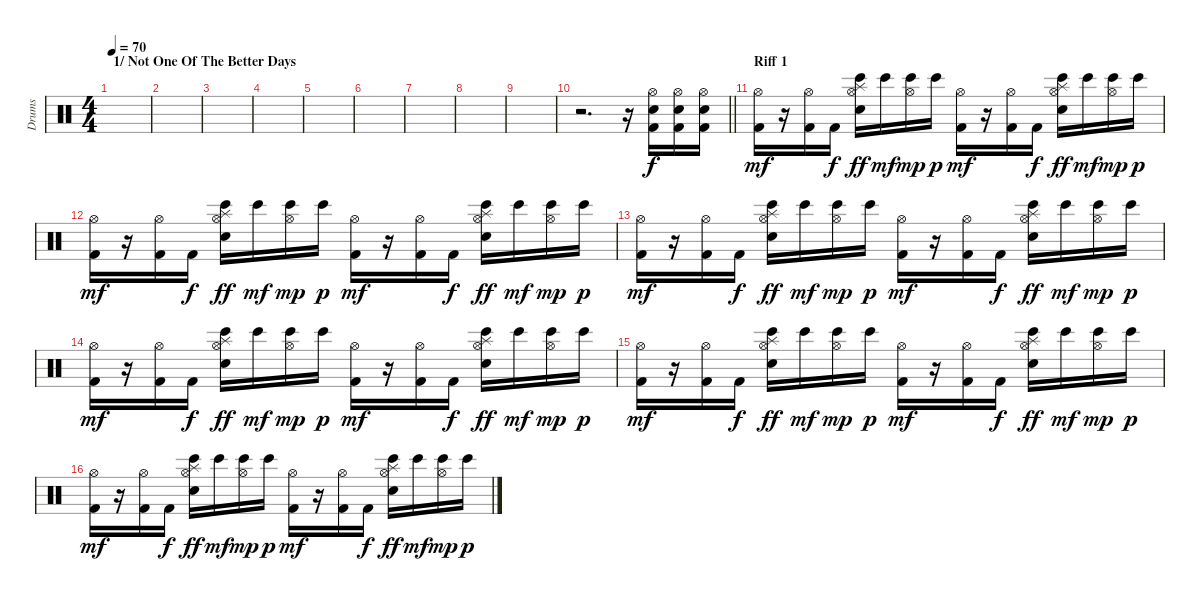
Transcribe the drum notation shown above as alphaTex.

\track ("Drums" "Drums") {instrument percussion}
\staff {score}
\articulation defaults
\ts (4 4)
\section ("" "1/ Not One Of The Better Days")
\tempo 70
\clef neutral
\ks c
|
|
|
|
|
|
|
|
|
\barLineRight lightlight
r.2{d} r.16 ("Hi-Hat (open)" "Snare (hit) 2" "Kick (hit) 2").16 ("Hi-Hat (open)" "Snare (hit) 2" "Kick (hit) 2").16 ("Hi-Hat (open)" "Snare (hit) 2" "Kick (hit) 2").16 |
\section ("" "Riff 1")
("Hi-Hat (open)" "Kick (hit) 2").16{dy mf} r.16 ("Hi-Hat (open)" "Kick (hit) 2").16 "Kick (hit) 2".16{dy f} ("Hi-Hat (open)" "Splash (hit)" "Snare (hit) 2" "Bongo High (hit)").16{dy ff} "Bongo High (hit)".16{dy mf} ("Hi-Hat (open)" "Bongo High (hit)").16{dy mp} "Bongo High (hit)".16{dy p} ("Hi-Hat (open)" "Kick (hit) 2").16{dy mf} r.16 ("Hi-Hat (open)" "Kick (hit) 2").16 "Kick (hit) 2".16{dy f} ("Hi-Hat (open)" "Splash (hit)" "Snare (hit) 2" "Bongo High (hit)").16{dy ff} "Bongo High (hit)".16{dy mf} ("Hi-Hat (open)" "Bongo High (hit)").16{dy mp} "Bongo High (hit)".16{dy p} |
("Hi-Hat (open)" "Kick (hit) 2").16{dy mf} r.16 ("Hi-Hat (open)" "Kick (hit) 2").16 "Kick (hit) 2".16{dy f} ("Hi-Hat (open)" "Splash (hit)" "Snare (hit) 2" "Bongo High (hit)").16{dy ff} "Bongo High (hit)".16{dy mf} ("Hi-Hat (open)" "Bongo High (hit)").16{dy mp} "Bongo High (hit)".16{dy p} ("Hi-Hat (open)" "Kick (hit) 2").16{dy mf} r.16 ("Hi-Hat (open)" "Kick (hit) 2").16 "Kick (hit) 2".16{dy f} ("Hi-Hat (open)" "Splash (hit)" "Snare (hit) 2" "Bongo High (hit)").16{dy ff} "Bongo High (hit)".16{dy mf} ("Hi-Hat (open)" "Bongo High (hit)").16{dy mp} "Bongo High (hit)".16{dy p} |
("Hi-Hat (open)" "Kick (hit) 2").16{dy mf} r.16 ("Hi-Hat (open)" "Kick (hit) 2").16 "Kick (hit) 2".16{dy f} ("Hi-Hat (open)" "Splash (hit)" "Snare (hit) 2" "Bongo High (hit)").16{dy ff} "Bongo High (hit)".16{dy mf} ("Hi-Hat (open)" "Bongo High (hit)").16{dy mp} "Bongo High (hit)".16{dy p} ("Hi-Hat (open)" "Kick (hit) 2").16{dy mf} r.16 ("Hi-Hat (open)" "Kick (hit) 2").16 "Kick (hit) 2".16{dy f} ("Hi-Hat (open)" "Splash (hit)" "Snare (hit) 2" "Bongo High (hit)").16{dy ff} "Bongo High (hit)".16{dy mf} ("Hi-Hat (open)" "Bongo High (hit)").16{dy mp} "Bongo High (hit)".16{dy p} |
("Hi-Hat (open)" "Kick (hit) 2").16{dy mf} r.16 ("Hi-Hat (open)" "Kick (hit) 2").16 "Kick (hit) 2".16{dy f} ("Hi-Hat (open)" "Splash (hit)" "Snare (hit) 2" "Bongo High (hit)").16{dy ff} "Bongo High (hit)".16{dy mf} ("Hi-Hat (open)" "Bongo High (hit)").16{dy mp} "Bongo High (hit)".16{dy p} ("Hi-Hat (open)" "Kick (hit) 2").16{dy mf} r.16 ("Hi-Hat (open)" "Kick (hit) 2").16 "Kick (hit) 2".16{dy f} ("Hi-Hat (open)" "Splash (hit)" "Snare (hit) 2" "Bongo High (hit)").16{dy ff} "Bongo High (hit)".16{dy mf} ("Hi-Hat (open)" "Bongo High (hit)").16{dy mp} "Bongo High (hit)".16{dy p} |
("Hi-Hat (open)" "Kick (hit) 2").16{dy mf} r.16 ("Hi-Hat (open)" "Kick (hit) 2").16 "Kick (hit) 2".16{dy f} ("Hi-Hat (open)" "Splash (hit)" "Snare (hit) 2" "Bongo High (hit)").16{dy ff} "Bongo High (hit)".16{dy mf} ("Hi-Hat (open)" "Bongo High (hit)").16{dy mp} "Bongo High (hit)".16{dy p} ("Hi-Hat (open)" "Kick (hit) 2").16{dy mf} r.16 ("Hi-Hat (open)" "Kick (hit) 2").16 "Kick (hit) 2".16{dy f} ("Hi-Hat (open)" "Splash (hit)" "Snare (hit) 2" "Bongo High (hit)").16{dy ff} "Bongo High (hit)".16{dy mf} ("Hi-Hat (open)" "Bongo High (hit)").16{dy mp} "Bongo High (hit)".16{dy p} |
("Hi-Hat (open)" "Kick (hit) 2").16{dy mf} r.16 ("Hi-Hat (open)" "Kick (hit) 2").16 "Kick (hit) 2".16{dy f} ("Hi-Hat (open)" "Splash (hit)" "Snare (hit) 2" "Bongo High (hit)").16{dy ff} "Bongo High (hit)".16{dy mf} ("Hi-Hat (open)" "Bongo High (hit)").16{dy mp} "Bongo High (hit)".16{dy p} ("Hi-Hat (open)" "Kick (hit) 2").16{dy mf} r.16 ("Hi-Hat (open)" "Kick (hit) 2").16 "Kick (hit) 2".16{dy f} ("Hi-Hat (open)" "Splash (hit)" "Snare (hit) 2" "Bongo High (hit)").16{dy ff} "Bongo High (hit)".16{dy mf} ("Hi-Hat (open)" "Bongo High (hit)").16{dy mp} "Bongo High (hit)".16{dy p}
